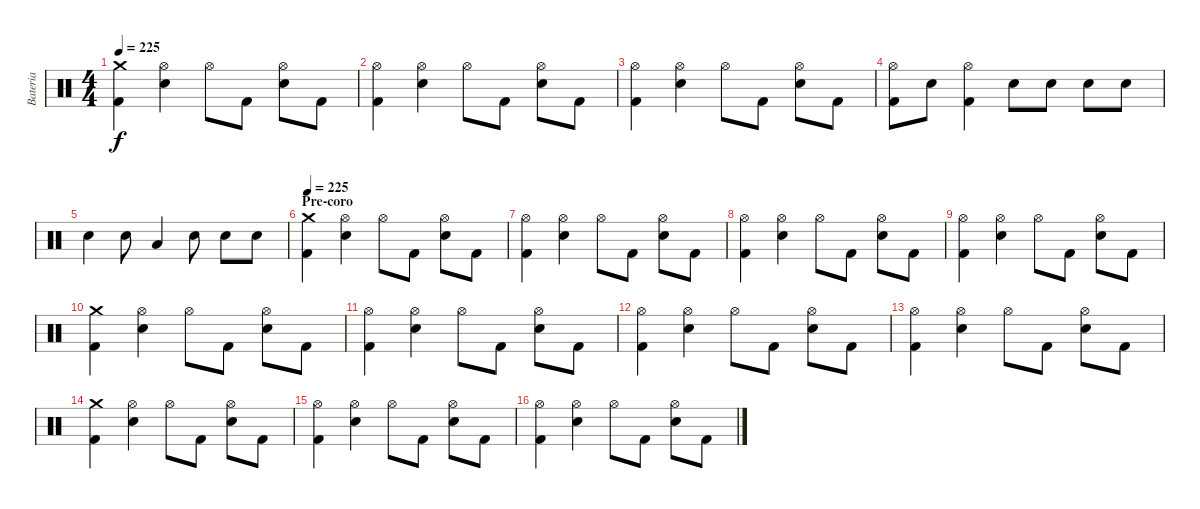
\track ("Bateria" "Bateria") {instrument percussion}
\staff {score}
\articulation defaults
\ts (4 4)
\tempo 225
\clef neutral
\ks c
("Crash medium (hit)" "Kick (hit) 2").4{dy f} ("Snare (hit) 2" "Hi-Hat (open)").4 "Hi-Hat (open)".8 "Kick (hit) 2".8 ("Hi-Hat (open)" "Snare (hit) 2").8 "Kick (hit) 2".8 |
("Hi-Hat (open)" "Kick (hit) 2").4 ("Snare (hit) 2" "Hi-Hat (open)").4 "Hi-Hat (open)".8 "Kick (hit) 2".8 ("Hi-Hat (open)" "Snare (hit) 2").8 "Kick (hit) 2".8 |
("Hi-Hat (open)" "Kick (hit) 2").4 ("Snare (hit) 2" "Hi-Hat (open)").4 "Hi-Hat (open)".8 "Kick (hit) 2".8 ("Hi-Hat (open)" "Snare (hit) 2").8 "Kick (hit) 2".8 |
("Hi-Hat (open)" "Kick (hit) 2").8 "Snare (hit) 2".8 ("Kick (hit) 2" "Hi-Hat (open)").4 "Snare (hit) 2".8 "Snare (hit) 2".8 "Snare (hit) 2".8 "Snare (hit) 2".8 |
"Snare (hit) 2".4 "Snare (hit) 2".8 "Low Tom (hit)".4 "Snare (hit) 2".8 "Snare (hit) 2".8 "Snare (hit) 2".8 |
\section ("" "Pre-coro")
\tempo 225
("Crash medium (hit)" "Kick (hit) 2").4 ("Snare (hit) 2" "Hi-Hat (open)").4 "Hi-Hat (open)".8 "Kick (hit) 2".8 ("Hi-Hat (open)" "Snare (hit) 2").8 "Kick (hit) 2".8 |
("Hi-Hat (open)" "Kick (hit) 2").4 ("Snare (hit) 2" "Hi-Hat (open)").4 "Hi-Hat (open)".8 "Kick (hit) 2".8 ("Hi-Hat (open)" "Snare (hit) 2").8 "Kick (hit) 2".8 |
("Hi-Hat (open)" "Kick (hit) 2").4 ("Snare (hit) 2" "Hi-Hat (open)").4 "Hi-Hat (open)".8 "Kick (hit) 2".8 ("Hi-Hat (open)" "Snare (hit) 2").8 "Kick (hit) 2".8 |
("Hi-Hat (open)" "Kick (hit) 2").4 ("Snare (hit) 2" "Hi-Hat (open)").4 "Hi-Hat (open)".8 "Kick (hit) 2".8 ("Hi-Hat (open)" "Snare (hit) 2").8 "Kick (hit) 2".8 |
("Crash medium (hit)" "Kick (hit) 2").4 ("Snare (hit) 2" "Hi-Hat (open)").4 "Hi-Hat (open)".8 "Kick (hit) 2".8 ("Hi-Hat (open)" "Snare (hit) 2").8 "Kick (hit) 2".8 |
("Hi-Hat (open)" "Kick (hit) 2").4 ("Snare (hit) 2" "Hi-Hat (open)").4 "Hi-Hat (open)".8 "Kick (hit) 2".8 ("Hi-Hat (open)" "Snare (hit) 2").8 "Kick (hit) 2".8 |
("Hi-Hat (open)" "Kick (hit) 2").4 ("Snare (hit) 2" "Hi-Hat (open)").4 "Hi-Hat (open)".8 "Kick (hit) 2".8 ("Hi-Hat (open)" "Snare (hit) 2").8 "Kick (hit) 2".8 |
("Hi-Hat (open)" "Kick (hit) 2").4 ("Snare (hit) 2" "Hi-Hat (open)").4 "Hi-Hat (open)".8 "Kick (hit) 2".8 ("Hi-Hat (open)" "Snare (hit) 2").8 "Kick (hit) 2".8 |
("Crash medium (hit)" "Kick (hit) 2").4 ("Snare (hit) 2" "Hi-Hat (open)").4 "Hi-Hat (open)".8 "Kick (hit) 2".8 ("Hi-Hat (open)" "Snare (hit) 2").8 "Kick (hit) 2".8 |
("Hi-Hat (open)" "Kick (hit) 2").4 ("Snare (hit) 2" "Hi-Hat (open)").4 "Hi-Hat (open)".8 "Kick (hit) 2".8 ("Hi-Hat (open)" "Snare (hit) 2").8 "Kick (hit) 2".8 |
("Hi-Hat (open)" "Kick (hit) 2").4 ("Snare (hit) 2" "Hi-Hat (open)").4 "Hi-Hat (open)".8 "Kick (hit) 2".8 ("Hi-Hat (open)" "Snare (hit) 2").8 "Kick (hit) 2".8
